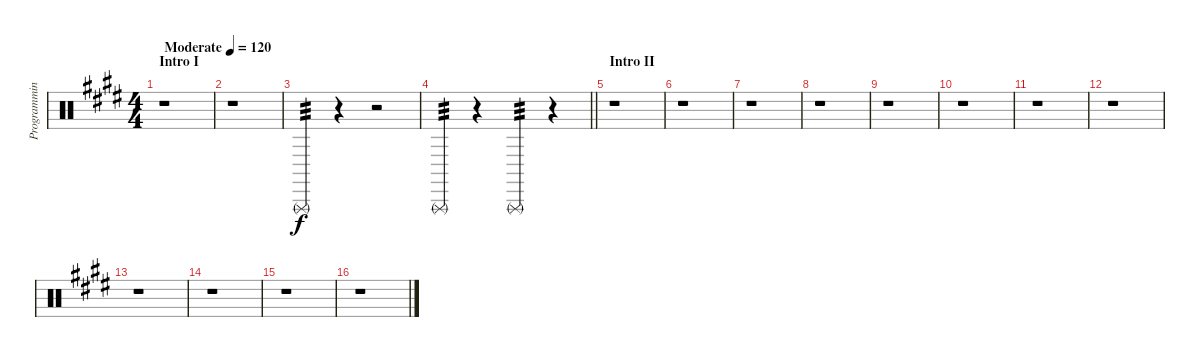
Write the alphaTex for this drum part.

\track ("Programming" "Programmin") {instrument percussion}
\staff {score}
\articulation defaults
\ts (4 4)
\section ("" "Intro I")
\tempo (120 "Moderate")
\clef neutral
\ks e
r.1{dy f} |
r.1 |
"Triangle (rnute)".4{tp 3} r.4 r.2 |
\barLineRight lightlight "Triangle (rnute)".4{tp 3}
r.4 "Triangle (rnute)".4{tp 3} r.4 |
\section ("" "Intro II")
r.1 |
r.1 |
r.1 |
r.1 |
r.1 |
r.1 |
r.1 |
r.1 |
r.1 |
r.1 |
r.1 |
r.1
